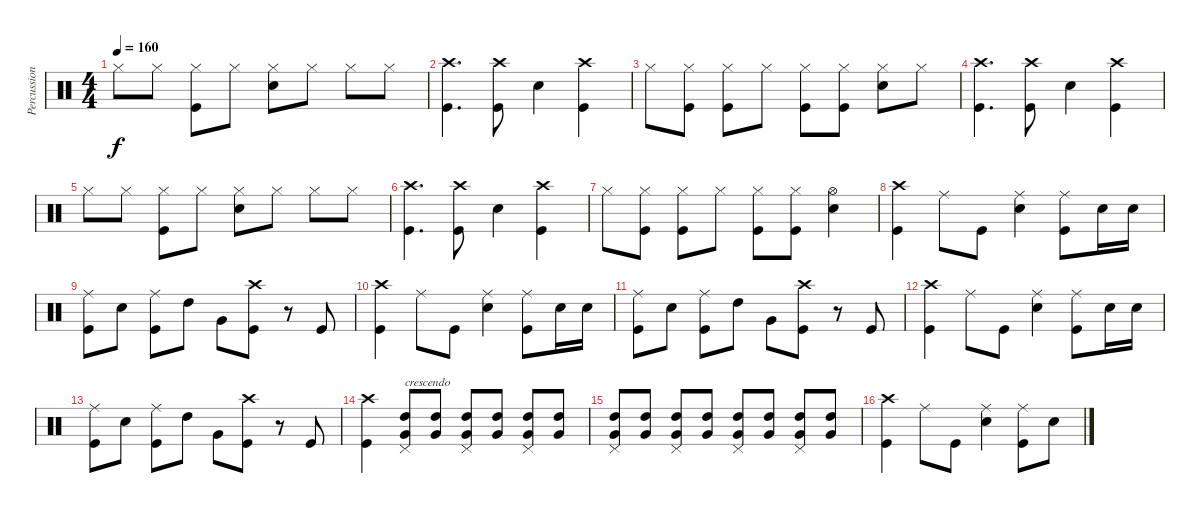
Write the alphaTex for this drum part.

\track ("Percussion" "Percussion") {instrument percussion}
\staff {score}
\articulation defaults
\ts (4 4)
\tempo 160
\clef neutral
\ks c "Hi-Hat (closed)".8{dy f} "Hi-Hat (closed)".8
("Hi-Hat (closed)" "Kick (hit)").8 "Hi-Hat (closed)".8 ("Hi-Hat (closed)" "Snare (hit) 2").8 "Hi-Hat (closed)".8 "Hi-Hat (closed)".8 "Hi-Hat (closed)".8 |
("Crash high (hit)" "Kick (hit)").4{d} ("Crash high (hit)" "Kick (hit)").8 "Snare (hit) 2".4 ("Crash high (hit)" "Kick (hit)").4 |
"Hi-Hat (closed)".8 ("Hi-Hat (closed)" "Kick (hit)").8 ("Hi-Hat (closed)" "Kick (hit)").8 "Hi-Hat (closed)".8 ("Hi-Hat (closed)" "Kick (hit)").8 ("Hi-Hat (closed)" "Kick (hit)").8 ("Hi-Hat (closed)" "Snare (hit) 2").8 "Hi-Hat (closed)".8 |
("Crash high (hit)" "Kick (hit)").4{d} ("Crash high (hit)" "Kick (hit)").8 "Snare (hit) 2".4 ("Crash high (hit)" "Kick (hit)").4 |
"Hi-Hat (closed)".8 "Hi-Hat (closed)".8 ("Hi-Hat (closed)" "Kick (hit)").8 "Hi-Hat (closed)".8 ("Hi-Hat (closed)" "Snare (hit) 2").8 "Hi-Hat (closed)".8 "Hi-Hat (closed)".8 "Hi-Hat (closed)".8 |
("Crash high (hit)" "Kick (hit)").4{d} ("Crash high (hit)" "Kick (hit)").8 "Snare (hit) 2".4 ("Crash high (hit)" "Kick (hit)").4 |
"Hi-Hat (closed)".8 ("Hi-Hat (closed)" "Kick (hit)").8 ("Hi-Hat (closed)" "Kick (hit)").8 "Hi-Hat (closed)".8 ("Hi-Hat (closed)" "Kick (hit)").8 ("Hi-Hat (closed)" "Kick (hit)").8 ("Hi-Hat (open)" "Snare (hit) 2").4 |
("Crash high (hit)" "Kick (hit)").4 "Ride (middle)".8 "Kick (hit)".8 ("Ride (middle)" "Snare (hit) 2").4 ("Ride (middle)" "Kick (hit)").8 "Snare (hit) 2".16 "Snare (hit) 2".16 |
("Ride (middle)" "Kick (hit)").8 "Snare (hit) 2".8 ("Ride (middle)" "Kick (hit)").8 "High Tom (hit)".8 "Very Low Tom (hit)".8 ("Crash high (hit)" "Kick (hit)").8 r.8 "Kick (hit)".8 |
("Crash high (hit)" "Kick (hit)").4 "Ride (middle)".8 "Kick (hit)".8 ("Ride (middle)" "Snare (hit) 2").4 ("Ride (middle)" "Kick (hit)").8 "Snare (hit) 2".16 "Snare (hit) 2".16 |
("Ride (middle)" "Kick (hit)").8 "Snare (hit) 2".8 ("Ride (middle)" "Kick (hit)").8 "High Tom (hit)".8 "Very Low Tom (hit)".8 ("Crash high (hit)" "Kick (hit)").8 r.8 "Kick (hit)".8 |
("Crash high (hit)" "Kick (hit)").4 "Ride (middle)".8 "Kick (hit)".8 ("Ride (middle)" "Snare (hit) 2").4 ("Ride (middle)" "Kick (hit)").8 "Snare (hit) 2".16 "Snare (hit) 2".16 |
("Ride (middle)" "Kick (hit)").8 "Snare (hit) 2".8 ("Ride (middle)" "Kick (hit)").8 "High Tom (hit)".8 "Very Low Tom (hit)".8 ("Crash high (hit)" "Kick (hit)").8 r.8 "Kick (hit)".8 |
("Crash high (hit)" "Kick (hit)").4 ("High Tom (hit)" "Very Low Tom (hit)" "Pedal Hi-Hat (hit)").8{txt "crescendo"} ("High Tom (hit)" "Very Low Tom (hit)").8 ("High Tom (hit)" "Very Low Tom (hit)" "Pedal Hi-Hat (hit)").8 ("High Tom (hit)" "Very Low Tom (hit)").8 ("High Tom (hit)" "Very Low Tom (hit)" "Pedal Hi-Hat (hit)").8 ("High Tom (hit)" "Very Low Tom (hit)").8 |
("High Tom (hit)" "Very Low Tom (hit)" "Pedal Hi-Hat (hit)").8 ("High Tom (hit)" "Very Low Tom (hit)").8 ("High Tom (hit)" "Very Low Tom (hit)" "Pedal Hi-Hat (hit)").8 ("High Tom (hit)" "Very Low Tom (hit)").8 ("High Tom (hit)" "Very Low Tom (hit)" "Pedal Hi-Hat (hit)").8 ("High Tom (hit)" "Very Low Tom (hit)").8 ("High Tom (hit)" "Very Low Tom (hit)" "Pedal Hi-Hat (hit)").8 ("High Tom (hit)" "Very Low Tom (hit)").8 |
("Crash high (hit)" "Kick (hit)").4 "Ride (middle)".8 "Kick (hit)".8 ("Ride (middle)" "Snare (hit) 2").4 ("Ride (middle)" "Kick (hit)").8 "Snare (hit) 2".8
